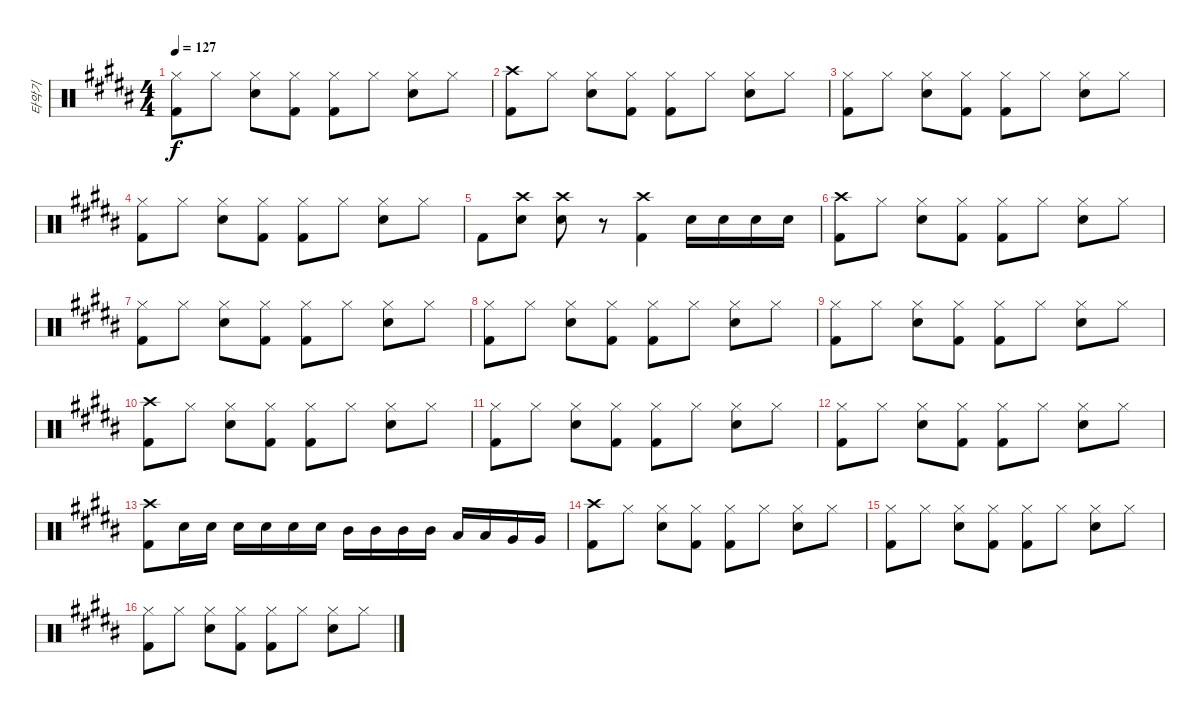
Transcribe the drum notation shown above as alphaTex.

\track ("타악기" "타악기") {instrument percussion}
\staff {score}
\articulation defaults
\ts (4 4)
\tempo 127
\clef neutral
\ks b
("Hi-Hat (closed)" "Kick (hit) 2").8{dy f} "Hi-Hat (closed)".8 ("Hi-Hat (closed)" "Electric Snare (hit)").8 ("Hi-Hat (closed)" "Kick (hit) 2").8 ("Hi-Hat (closed)" "Kick (hit) 2").8 "Hi-Hat (closed)".8 ("Hi-Hat (closed)" "Electric Snare (hit)").8 "Hi-Hat (closed)".8 |
("Crash high (hit)" "Kick (hit) 2").8 "Hi-Hat (closed)".8 ("Hi-Hat (closed)" "Electric Snare (hit)").8 ("Hi-Hat (closed)" "Kick (hit) 2").8 ("Hi-Hat (closed)" "Kick (hit) 2").8 "Hi-Hat (closed)".8 ("Hi-Hat (closed)" "Electric Snare (hit)").8 "Hi-Hat (closed)".8 |
("Hi-Hat (closed)" "Kick (hit) 2").8 "Hi-Hat (closed)".8 ("Hi-Hat (closed)" "Electric Snare (hit)").8 ("Hi-Hat (closed)" "Kick (hit) 2").8 ("Hi-Hat (closed)" "Kick (hit) 2").8 "Hi-Hat (closed)".8 ("Hi-Hat (closed)" "Electric Snare (hit)").8 "Hi-Hat (closed)".8 |
("Hi-Hat (closed)" "Kick (hit) 2").8 "Hi-Hat (closed)".8 ("Hi-Hat (closed)" "Electric Snare (hit)").8 ("Hi-Hat (closed)" "Kick (hit) 2").8 ("Hi-Hat (closed)" "Kick (hit) 2").8 "Hi-Hat (closed)".8 ("Hi-Hat (closed)" "Electric Snare (hit)").8 "Hi-Hat (closed)".8 |
"Kick (hit) 2".8 ("Crash high (hit)" "Electric Snare (hit)").8 ("Crash high (hit)" "Electric Snare (hit)").8 r.8 ("Crash high (hit)" "Kick (hit) 2").4 "Electric Snare (hit)".16 "Electric Snare (hit)".16 "Electric Snare (hit)".16 "Electric Snare (hit)".16 |
("Crash high (hit)" "Kick (hit) 2").8 "Hi-Hat (closed)".8 ("Hi-Hat (closed)" "Electric Snare (hit)").8 ("Hi-Hat (closed)" "Kick (hit) 2").8 ("Hi-Hat (closed)" "Kick (hit) 2").8 "Hi-Hat (closed)".8 ("Hi-Hat (closed)" "Electric Snare (hit)").8 "Hi-Hat (closed)".8 |
("Hi-Hat (closed)" "Kick (hit) 2").8 "Hi-Hat (closed)".8 ("Hi-Hat (closed)" "Electric Snare (hit)").8 ("Hi-Hat (closed)" "Kick (hit) 2").8 ("Hi-Hat (closed)" "Kick (hit) 2").8 "Hi-Hat (closed)".8 ("Hi-Hat (closed)" "Electric Snare (hit)").8 "Hi-Hat (closed)".8 |
("Hi-Hat (closed)" "Kick (hit) 2").8 "Hi-Hat (closed)".8 ("Hi-Hat (closed)" "Electric Snare (hit)").8 ("Hi-Hat (closed)" "Kick (hit) 2").8 ("Hi-Hat (closed)" "Kick (hit) 2").8 "Hi-Hat (closed)".8 ("Hi-Hat (closed)" "Electric Snare (hit)").8 "Hi-Hat (closed)".8 |
("Hi-Hat (closed)" "Kick (hit) 2").8 "Hi-Hat (closed)".8 ("Hi-Hat (closed)" "Electric Snare (hit)").8 ("Hi-Hat (closed)" "Kick (hit) 2").8 ("Hi-Hat (closed)" "Kick (hit) 2").8 "Hi-Hat (closed)".8 ("Hi-Hat (closed)" "Electric Snare (hit)").8 "Hi-Hat (closed)".8 |
("Crash high (hit)" "Kick (hit) 2").8 "Hi-Hat (closed)".8 ("Hi-Hat (closed)" "Electric Snare (hit)").8 ("Hi-Hat (closed)" "Kick (hit) 2").8 ("Hi-Hat (closed)" "Kick (hit) 2").8 "Hi-Hat (closed)".8 ("Hi-Hat (closed)" "Electric Snare (hit)").8 "Hi-Hat (closed)".8 |
("Hi-Hat (closed)" "Kick (hit) 2").8 "Hi-Hat (closed)".8 ("Hi-Hat (closed)" "Electric Snare (hit)").8 ("Hi-Hat (closed)" "Kick (hit) 2").8 ("Hi-Hat (closed)" "Kick (hit) 2").8 "Hi-Hat (closed)".8 ("Hi-Hat (closed)" "Electric Snare (hit)").8 "Hi-Hat (closed)".8 |
("Hi-Hat (closed)" "Kick (hit) 2").8 "Hi-Hat (closed)".8 ("Hi-Hat (closed)" "Electric Snare (hit)").8 ("Hi-Hat (closed)" "Kick (hit) 2").8 ("Hi-Hat (closed)" "Kick (hit) 2").8 "Hi-Hat (closed)".8 ("Hi-Hat (closed)" "Electric Snare (hit)").8 "Hi-Hat (closed)".8 |
("Crash high (hit)" "Kick (hit) 2").8 "Electric Snare (hit)".16 "Electric Snare (hit)".16 "Electric Snare (hit)".16 "Electric Snare (hit)".16 "Electric Snare (hit)".16 "Electric Snare (hit)".16 "Mid Tom (hit)".16 "Mid Tom (hit)".16 "Mid Tom (hit)".16 "Mid Tom (hit)".16 "Low Tom (hit)".16 "Low Tom (hit)".16 "Very Low Tom (hit)".16 "Very Low Tom (hit)".16 |
("Crash high (hit)" "Kick (hit) 2").8 "Hi-Hat (closed)".8 ("Hi-Hat (closed)" "Electric Snare (hit)").8 ("Hi-Hat (closed)" "Kick (hit) 2").8 ("Hi-Hat (closed)" "Kick (hit) 2").8 "Hi-Hat (closed)".8 ("Hi-Hat (closed)" "Electric Snare (hit)").8 "Hi-Hat (closed)".8 |
("Hi-Hat (closed)" "Kick (hit) 2").8 "Hi-Hat (closed)".8 ("Hi-Hat (closed)" "Electric Snare (hit)").8 ("Hi-Hat (closed)" "Kick (hit) 2").8 ("Hi-Hat (closed)" "Kick (hit) 2").8 "Hi-Hat (closed)".8 ("Hi-Hat (closed)" "Electric Snare (hit)").8 "Hi-Hat (closed)".8 |
("Hi-Hat (closed)" "Kick (hit) 2").8 "Hi-Hat (closed)".8 ("Hi-Hat (closed)" "Electric Snare (hit)").8 ("Hi-Hat (closed)" "Kick (hit) 2").8 ("Hi-Hat (closed)" "Kick (hit) 2").8 "Hi-Hat (closed)".8 ("Hi-Hat (closed)" "Electric Snare (hit)").8 "Hi-Hat (closed)".8
